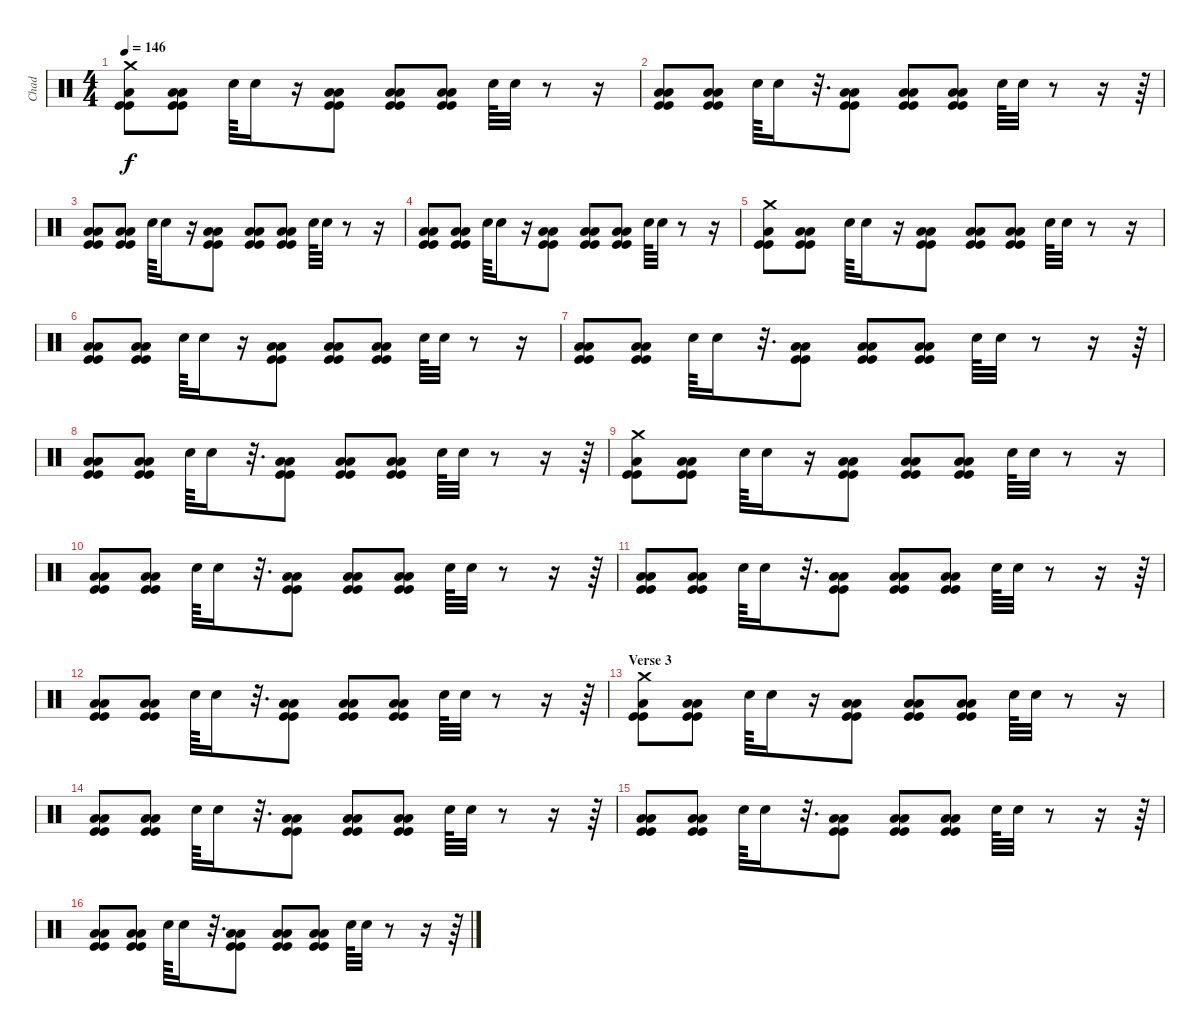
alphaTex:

\track ("Chad" "Chad") {instrument percussion}
\staff {score}
\articulation defaults
\ts (4 4)
\tempo 146
\clef neutral
\ks c
("Crash medium (hit)" "Low Tom (hit)" "Kick (hit)" "Kick (hit)").8{dy f} ("Low Tom (hit)" "Low Floor Tom (hit)" "Kick (hit)" "Kick (hit)").8 "Snare (hit) 2".64 "Snare (hit) 2".16 r.16 ("Low Tom (hit)" "Low Floor Tom (hit)" "Kick (hit)" "Kick (hit)").8 ("Low Tom (hit)" "Low Floor Tom (hit)" "Kick (hit)" "Kick (hit)").8 ("Low Tom (hit)" "Low Floor Tom (hit)" "Kick (hit)" "Kick (hit)").8 "Snare (hit) 2".64 "Snare (hit) 2".32 r.8 r.16 |
("Low Tom (hit)" "Low Floor Tom (hit)" "Kick (hit)" "Kick (hit)").8 ("Low Tom (hit)" "Low Floor Tom (hit)" "Kick (hit)" "Kick (hit)").8 "Snare (hit) 2".64 "Snare (hit) 2".16 r.32{d} ("Low Tom (hit)" "Low Floor Tom (hit)" "Kick (hit)" "Kick (hit)").8 ("Low Tom (hit)" "Low Floor Tom (hit)" "Kick (hit)" "Kick (hit)").8 ("Low Tom (hit)" "Low Floor Tom (hit)" "Kick (hit)" "Kick (hit)").8 "Snare (hit) 2".64 "Snare (hit) 2".32 r.8 r.16 r.64 |
("Low Tom (hit)" "Low Floor Tom (hit)" "Kick (hit)" "Kick (hit)").8 ("Low Tom (hit)" "Low Floor Tom (hit)" "Kick (hit)" "Kick (hit)").8 "Snare (hit) 2".64 "Snare (hit) 2".16 r.16 ("Low Tom (hit)" "Low Floor Tom (hit)" "Kick (hit)" "Kick (hit)").8 ("Low Tom (hit)" "Low Floor Tom (hit)" "Kick (hit)" "Kick (hit)").8 ("Low Tom (hit)" "Low Floor Tom (hit)" "Kick (hit)" "Kick (hit)").8 "Snare (hit) 2".64 "Snare (hit) 2".32 r.8 r.16 |
("Low Tom (hit)" "Low Floor Tom (hit)" "Kick (hit)" "Kick (hit)").8 ("Low Tom (hit)" "Low Floor Tom (hit)" "Kick (hit)" "Kick (hit)").8 "Snare (hit) 2".64 "Snare (hit) 2".16 r.16 ("Low Tom (hit)" "Low Floor Tom (hit)" "Kick (hit)" "Kick (hit)").8 ("Low Tom (hit)" "Low Floor Tom (hit)" "Kick (hit)" "Kick (hit)").8 ("Low Tom (hit)" "Low Floor Tom (hit)" "Kick (hit)" "Kick (hit)").8 "Snare (hit) 2".64 "Snare (hit) 2".32 r.8 r.16 |
("Crash medium (hit)" "Low Tom (hit)" "Kick (hit)" "Kick (hit)").8 ("Low Tom (hit)" "Low Floor Tom (hit)" "Kick (hit)" "Kick (hit)").8 "Snare (hit) 2".64 "Snare (hit) 2".16 r.16 ("Low Tom (hit)" "Low Floor Tom (hit)" "Kick (hit)" "Kick (hit)").8 ("Low Tom (hit)" "Low Floor Tom (hit)" "Kick (hit)" "Kick (hit)").8 ("Low Tom (hit)" "Low Floor Tom (hit)" "Kick (hit)" "Kick (hit)").8 "Snare (hit) 2".64 "Snare (hit) 2".32 r.8 r.16 |
("Low Tom (hit)" "Low Floor Tom (hit)" "Kick (hit)" "Kick (hit)").8 ("Low Tom (hit)" "Low Floor Tom (hit)" "Kick (hit)" "Kick (hit)").8 "Snare (hit) 2".64 "Snare (hit) 2".16 r.16 ("Low Tom (hit)" "Low Floor Tom (hit)" "Kick (hit)" "Kick (hit)").8 ("Low Tom (hit)" "Low Floor Tom (hit)" "Kick (hit)" "Kick (hit)").8 ("Low Tom (hit)" "Low Floor Tom (hit)" "Kick (hit)" "Kick (hit)").8 "Snare (hit) 2".64 "Snare (hit) 2".32 r.8 r.16 |
("Low Tom (hit)" "Low Floor Tom (hit)" "Kick (hit)" "Kick (hit)").8 ("Low Tom (hit)" "Low Floor Tom (hit)" "Kick (hit)" "Kick (hit)").8 "Snare (hit) 2".64 "Snare (hit) 2".16 r.32{d} ("Low Tom (hit)" "Low Floor Tom (hit)" "Kick (hit)" "Kick (hit)").8 ("Low Tom (hit)" "Low Floor Tom (hit)" "Kick (hit)" "Kick (hit)").8 ("Low Tom (hit)" "Low Floor Tom (hit)" "Kick (hit)" "Kick (hit)").8 "Snare (hit) 2".64 "Snare (hit) 2".32 r.8 r.16 r.64 |
("Low Tom (hit)" "Low Floor Tom (hit)" "Kick (hit)" "Kick (hit)").8 ("Low Tom (hit)" "Low Floor Tom (hit)" "Kick (hit)" "Kick (hit)").8 "Snare (hit) 2".64 "Snare (hit) 2".16 r.32{d} ("Low Tom (hit)" "Low Floor Tom (hit)" "Kick (hit)" "Kick (hit)").8 ("Low Tom (hit)" "Low Floor Tom (hit)" "Kick (hit)" "Kick (hit)").8 ("Low Tom (hit)" "Low Floor Tom (hit)" "Kick (hit)" "Kick (hit)").8 "Snare (hit) 2".64 "Snare (hit) 2".32 r.8 r.16 r.64 |
("Crash medium (hit)" "Low Tom (hit)" "Kick (hit)" "Kick (hit)").8 ("Low Tom (hit)" "Low Floor Tom (hit)" "Kick (hit)" "Kick (hit)").8 "Snare (hit) 2".64 "Snare (hit) 2".16 r.16 ("Low Tom (hit)" "Low Floor Tom (hit)" "Kick (hit)" "Kick (hit)").8 ("Low Tom (hit)" "Low Floor Tom (hit)" "Kick (hit)" "Kick (hit)").8 ("Low Tom (hit)" "Low Floor Tom (hit)" "Kick (hit)" "Kick (hit)").8 "Snare (hit) 2".64 "Snare (hit) 2".32 r.8 r.16 |
("Low Tom (hit)" "Low Floor Tom (hit)" "Kick (hit)" "Kick (hit)").8 ("Low Tom (hit)" "Low Floor Tom (hit)" "Kick (hit)" "Kick (hit)").8 "Snare (hit) 2".64 "Snare (hit) 2".16 r.32{d} ("Low Tom (hit)" "Low Floor Tom (hit)" "Kick (hit)" "Kick (hit)").8 ("Low Tom (hit)" "Low Floor Tom (hit)" "Kick (hit)" "Kick (hit)").8 ("Low Tom (hit)" "Low Floor Tom (hit)" "Kick (hit)" "Kick (hit)").8 "Snare (hit) 2".64 "Snare (hit) 2".32 r.8 r.16 r.64 |
("Low Tom (hit)" "Low Floor Tom (hit)" "Kick (hit)" "Kick (hit)").8 ("Low Tom (hit)" "Low Floor Tom (hit)" "Kick (hit)" "Kick (hit)").8 "Snare (hit) 2".64 "Snare (hit) 2".16 r.32{d} ("Low Tom (hit)" "Low Floor Tom (hit)" "Kick (hit)" "Kick (hit)").8 ("Low Tom (hit)" "Low Floor Tom (hit)" "Kick (hit)" "Kick (hit)").8 ("Low Tom (hit)" "Low Floor Tom (hit)" "Kick (hit)" "Kick (hit)").8 "Snare (hit) 2".64 "Snare (hit) 2".32 r.8 r.16 r.64 |
("Low Tom (hit)" "Low Floor Tom (hit)" "Kick (hit)" "Kick (hit)").8 ("Low Tom (hit)" "Low Floor Tom (hit)" "Kick (hit)" "Kick (hit)").8 "Snare (hit) 2".64 "Snare (hit) 2".16 r.32{d} ("Low Tom (hit)" "Low Floor Tom (hit)" "Kick (hit)" "Kick (hit)").8 ("Low Tom (hit)" "Low Floor Tom (hit)" "Kick (hit)" "Kick (hit)").8 ("Low Tom (hit)" "Low Floor Tom (hit)" "Kick (hit)" "Kick (hit)").8 "Snare (hit) 2".64 "Snare (hit) 2".32 r.8 r.16 r.64 |
\section ("" "Verse 3")
("Crash medium (hit)" "Low Tom (hit)" "Kick (hit)" "Kick (hit)").8 ("Low Tom (hit)" "Low Floor Tom (hit)" "Kick (hit)" "Kick (hit)").8 "Snare (hit) 2".64 "Snare (hit) 2".16 r.16 ("Low Tom (hit)" "Low Floor Tom (hit)" "Kick (hit)" "Kick (hit)").8 ("Low Tom (hit)" "Low Floor Tom (hit)" "Kick (hit)" "Kick (hit)").8 ("Low Tom (hit)" "Low Floor Tom (hit)" "Kick (hit)" "Kick (hit)").8 "Snare (hit) 2".64 "Snare (hit) 2".32 r.8 r.16 |
("Low Tom (hit)" "Low Floor Tom (hit)" "Kick (hit)" "Kick (hit)").8 ("Low Tom (hit)" "Low Floor Tom (hit)" "Kick (hit)" "Kick (hit)").8 "Snare (hit) 2".64 "Snare (hit) 2".16 r.32{d} ("Low Tom (hit)" "Low Floor Tom (hit)" "Kick (hit)" "Kick (hit)").8 ("Low Tom (hit)" "Low Floor Tom (hit)" "Kick (hit)" "Kick (hit)").8 ("Low Tom (hit)" "Low Floor Tom (hit)" "Kick (hit)" "Kick (hit)").8 "Snare (hit) 2".64 "Snare (hit) 2".32 r.8 r.16 r.64 |
("Low Tom (hit)" "Low Floor Tom (hit)" "Kick (hit)" "Kick (hit)").8 ("Low Tom (hit)" "Low Floor Tom (hit)" "Kick (hit)" "Kick (hit)").8 "Snare (hit) 2".64 "Snare (hit) 2".16 r.32{d} ("Low Tom (hit)" "Low Floor Tom (hit)" "Kick (hit)" "Kick (hit)").8 ("Low Tom (hit)" "Low Floor Tom (hit)" "Kick (hit)" "Kick (hit)").8 ("Low Tom (hit)" "Low Floor Tom (hit)" "Kick (hit)" "Kick (hit)").8 "Snare (hit) 2".64 "Snare (hit) 2".32 r.8 r.16 r.64 |
("Low Tom (hit)" "Low Floor Tom (hit)" "Kick (hit)" "Kick (hit)").8 ("Low Tom (hit)" "Low Floor Tom (hit)" "Kick (hit)" "Kick (hit)").8 "Snare (hit) 2".64 "Snare (hit) 2".16 r.32{d} ("Low Tom (hit)" "Low Floor Tom (hit)" "Kick (hit)" "Kick (hit)").8 ("Low Tom (hit)" "Low Floor Tom (hit)" "Kick (hit)" "Kick (hit)").8 ("Low Tom (hit)" "Low Floor Tom (hit)" "Kick (hit)" "Kick (hit)").8 "Snare (hit) 2".64 "Snare (hit) 2".32 r.8 r.16 r.64
